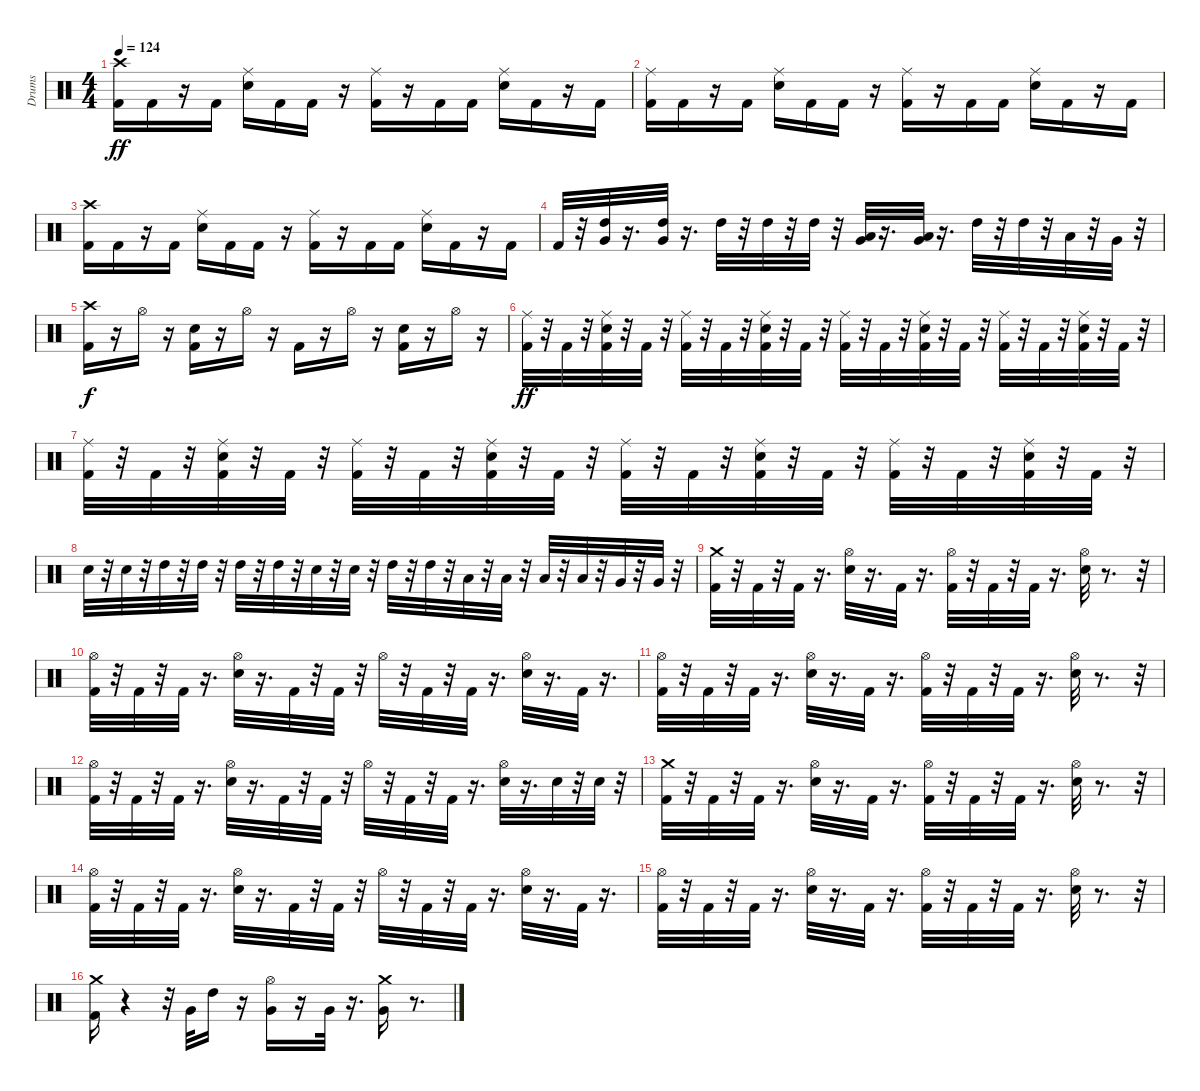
\track ("Drums" "Drums") {instrument percussion}
\staff {score}
\articulation defaults
\ts (4 4)
\tempo 124
\clef neutral
\ks c
("Kick (hit) 2" "Crash high (hit)").16{dy ff} "Kick (hit) 2".16 r.16 "Kick (hit) 2".16 ("Electric Snare (hit)" "Ride (middle)").16 "Kick (hit) 2".16 "Kick (hit) 2".16 r.16 ("Kick (hit) 2" "Ride (middle)").16 r.16 "Kick (hit) 2".16 "Kick (hit) 2".16 ("Electric Snare (hit)" "Ride (middle)").16 "Kick (hit) 2".16 r.16 "Kick (hit) 2".16 |
("Kick (hit) 2" "Ride (middle)").16 "Kick (hit) 2".16 r.16 "Kick (hit) 2".16 ("Electric Snare (hit)" "Ride (middle)").16 "Kick (hit) 2".16 "Kick (hit) 2".16 r.16 ("Kick (hit) 2" "Ride (middle)").16 r.16 "Kick (hit) 2".16 "Kick (hit) 2".16 ("Electric Snare (hit)" "Ride (middle)").16 "Kick (hit) 2".16 r.16 "Kick (hit) 2".16 |
("Kick (hit) 2" "Crash high (hit)").16 "Kick (hit) 2".16 r.16 "Kick (hit) 2".16 ("Electric Snare (hit)" "Ride (middle)").16 "Kick (hit) 2".16 "Kick (hit) 2".16 r.16 ("Kick (hit) 2" "Ride (middle)").16 r.16 "Kick (hit) 2".16 "Kick (hit) 2".16 ("Electric Snare (hit)" "Ride (middle)").16 "Kick (hit) 2".16 r.16 "Kick (hit) 2".16 |
"Kick (hit) 2".32 r.32 ("Very Low Tom (hit)" "High Tom (hit)").32 r.16{d} ("Very Low Tom (hit)" "High Tom (hit)").32 r.16{d} "High Tom (hit)".32 r.32 "High Tom (hit)".32 r.32 "High Tom (hit)".32 r.32 ("Very Low Tom (hit)" "Low Tom (hit)").32 r.16{d} ("Low Tom (hit)" "Very Low Tom (hit)").32 r.16{d} "High Tom (hit)".32 r.32 "High Tom (hit)".32 r.32 "Low Tom (hit)".32 r.32 "Very Low Tom (hit)".32 r.32 |
("Kick (hit) 2" "Crash high (hit)").16{dy f} r.16 "Hi-Hat (open)".16 r.16 ("Kick (hit) 2" "Electric Snare (hit)").16 r.16 "Hi-Hat (open)".16 r.16 "Kick (hit) 2".16 r.16 "Hi-Hat (open)".16 r.16 ("Kick (hit) 2" "Electric Snare (hit)").16 r.16 "Hi-Hat (open)".16 r.16 |
("Kick (hit) 2" "Ride (middle)").32{dy ff} r.32 "Kick (hit) 2".32 r.32 ("Electric Snare (hit)" "Kick (hit) 2" "Ride (middle)").32 r.32 "Kick (hit) 2".32 r.32 ("Kick (hit) 2" "Ride (middle)").32 r.32 "Kick (hit) 2".32 r.32 ("Electric Snare (hit)" "Kick (hit) 2" "Ride (middle)").32 r.32 "Kick (hit) 2".32 r.32 ("Kick (hit) 2" "Ride (middle)").32 r.32 "Kick (hit) 2".32 r.32 ("Electric Snare (hit)" "Kick (hit) 2" "Ride (middle)").32 r.32 "Kick (hit) 2".32 r.32 ("Kick (hit) 2" "Ride (middle)").32 r.32 "Kick (hit) 2".32 r.32 ("Electric Snare (hit)" "Kick (hit) 2" "Ride (middle)").32 r.32 "Kick (hit) 2".32 r.32 |
("Kick (hit) 2" "Ride (middle)").32 r.32 "Kick (hit) 2".32 r.32 ("Electric Snare (hit)" "Kick (hit) 2" "Ride (middle)").32 r.32 "Kick (hit) 2".32 r.32 ("Kick (hit) 2" "Ride (middle)").32 r.32 "Kick (hit) 2".32 r.32 ("Electric Snare (hit)" "Kick (hit) 2" "Ride (middle)").32 r.32 "Kick (hit) 2".32 r.32 ("Kick (hit) 2" "Ride (middle)").32 r.32 "Kick (hit) 2".32 r.32 ("Electric Snare (hit)" "Kick (hit) 2" "Ride (middle)").32 r.32 "Kick (hit) 2".32 r.32 ("Kick (hit) 2" "Ride (middle)").32 r.32 "Kick (hit) 2".32 r.32 ("Electric Snare (hit)" "Kick (hit) 2" "Ride (middle)").32 r.32 "Kick (hit) 2".32 r.32 |
"Electric Snare (hit)".32 r.32 "Electric Snare (hit)".32 r.32 "High Tom (hit)".32 r.32 "High Tom (hit)".32 r.32 "High Tom (hit)".32 r.32 "High Tom (hit)".32 r.32 "Electric Snare (hit)".32 r.32 "Electric Snare (hit)".32 r.32 "High Tom (hit)".32 r.32 "High Tom (hit)".32 r.32 "Low Tom (hit)".32 r.32 "Low Tom (hit)".32 r.32 "Low Tom (hit)".32 r.32 "Low Tom (hit)".32 r.32 "Very Low Tom (hit)".32 r.32 "Very Low Tom (hit)".32 r.32 |
("Kick (hit) 2" "Crash medium (hit)").32 r.32 "Kick (hit) 2".32 r.32 "Kick (hit) 2".32 r.16{d} ("Electric Snare (hit)" "Hi-Hat (open)").32 r.16{d} "Kick (hit) 2".32 r.16{d} ("Hi-Hat (open)" "Kick (hit) 2").32 r.32 "Kick (hit) 2".32 r.32 "Kick (hit) 2".32 r.16{d} ("Electric Snare (hit)" "Hi-Hat (open)").32 r.8{d} r.32 |
("Hi-Hat (open)" "Kick (hit) 2").32 r.32 "Kick (hit) 2".32 r.32 "Kick (hit) 2".32 r.16{d} ("Hi-Hat (open)" "Electric Snare (hit)").32 r.16{d} "Kick (hit) 2".32 r.32 "Kick (hit) 2".32 r.32 "Hi-Hat (open)".32 r.32 "Kick (hit) 2".32 r.32 "Kick (hit) 2".32 r.16{d} ("Hi-Hat (open)" "Electric Snare (hit)").32 r.16{d} "Kick (hit) 2".32 r.16{d} |
("Kick (hit) 2" "Hi-Hat (open)").32 r.32 "Kick (hit) 2".32 r.32 "Kick (hit) 2".32 r.16{d} ("Electric Snare (hit)" "Hi-Hat (open)").32 r.16{d} "Kick (hit) 2".32 r.16{d} ("Kick (hit) 2" "Hi-Hat (open)").32 r.32 "Kick (hit) 2".32 r.32 "Kick (hit) 2".32 r.16{d} ("Electric Snare (hit)" "Hi-Hat (open)").32 r.8{d} r.32 |
("Hi-Hat (open)" "Kick (hit) 2").32 r.32 "Kick (hit) 2".32 r.32 "Kick (hit) 2".32 r.16{d} ("Hi-Hat (open)" "Electric Snare (hit)").32 r.16{d} "Kick (hit) 2".32 r.32 "Kick (hit) 2".32 r.32 "Hi-Hat (open)".32 r.32 "Kick (hit) 2".32 r.32 "Kick (hit) 2".32 r.16{d} ("Electric Snare (hit)" "Hi-Hat (open)").32 r.16{d} "Electric Snare (hit)".32 r.32 "Electric Snare (hit)".32 r.32 |
("Kick (hit) 2" "Crash medium (hit)").32 r.32 "Kick (hit) 2".32 r.32 "Kick (hit) 2".32 r.16{d} ("Electric Snare (hit)" "Hi-Hat (open)").32 r.16{d} "Kick (hit) 2".32 r.16{d} ("Hi-Hat (open)" "Kick (hit) 2").32 r.32 "Kick (hit) 2".32 r.32 "Kick (hit) 2".32 r.16{d} ("Electric Snare (hit)" "Hi-Hat (open)").32 r.8{d} r.32 |
("Hi-Hat (open)" "Kick (hit) 2").32 r.32 "Kick (hit) 2".32 r.32 "Kick (hit) 2".32 r.16{d} ("Hi-Hat (open)" "Electric Snare (hit)").32 r.16{d} "Kick (hit) 2".32 r.32 "Kick (hit) 2".32 r.32 "Hi-Hat (open)".32 r.32 "Kick (hit) 2".32 r.32 "Kick (hit) 2".32 r.16{d} ("Hi-Hat (open)" "Electric Snare (hit)").32 r.16{d} "Kick (hit) 2".32 r.16{d} |
("Kick (hit) 2" "Hi-Hat (open)").32 r.32 "Kick (hit) 2".32 r.32 "Kick (hit) 2".32 r.16{d} ("Electric Snare (hit)" "Hi-Hat (open)").32 r.16{d} "Kick (hit) 2".32 r.16{d} ("Kick (hit) 2" "Hi-Hat (open)").32 r.32 "Kick (hit) 2".32 r.32 "Kick (hit) 2".32 r.16{d} ("Electric Snare (hit)" "Hi-Hat (open)").32 r.8{d} r.32 |
("Crash medium (hit)" "Kick (hit) 2").16 r.4 r.32 "Very Low Tom (hit)".32 "High Tom (hit)".16 r.16 ("Very Low Tom (hit)" "Hi-Hat (open)").16 r.16 "Very Low Tom (hit)".32 r.16{d} ("Very Low Tom (hit)" "Crash medium (hit)").16 r.8{d}
